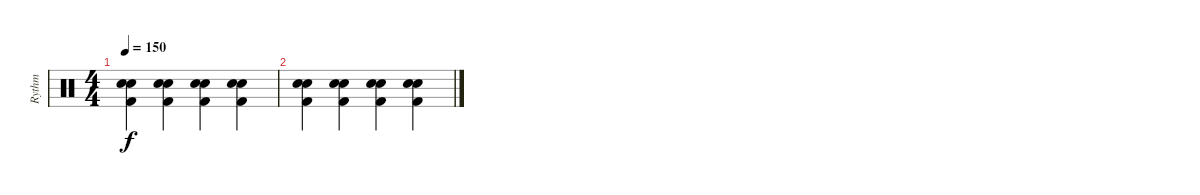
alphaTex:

\track ("Rythm" "Rythm") {instrument percussion}
\staff {score}
\articulation defaults
\ts (4 4)
\tempo 150
\clef neutral
\ks c
("Electric Snare (hit)" "Kick (hit) 2" "Snare (hit) 2").4{dy f} ("Electric Snare (hit)" "Kick (hit) 2" "Snare (hit) 2").4 ("Electric Snare (hit)" "Kick (hit) 2" "Snare (hit) 2").4 ("Electric Snare (hit)" "Kick (hit) 2" "Snare (hit) 2").4 |
("Electric Snare (hit)" "Kick (hit) 2" "Snare (hit) 2").4 ("Electric Snare (hit)" "Kick (hit) 2" "Snare (hit) 2").4 ("Electric Snare (hit)" "Kick (hit) 2" "Snare (hit) 2").4 ("Electric Snare (hit)" "Kick (hit) 2" "Snare (hit) 2").4
